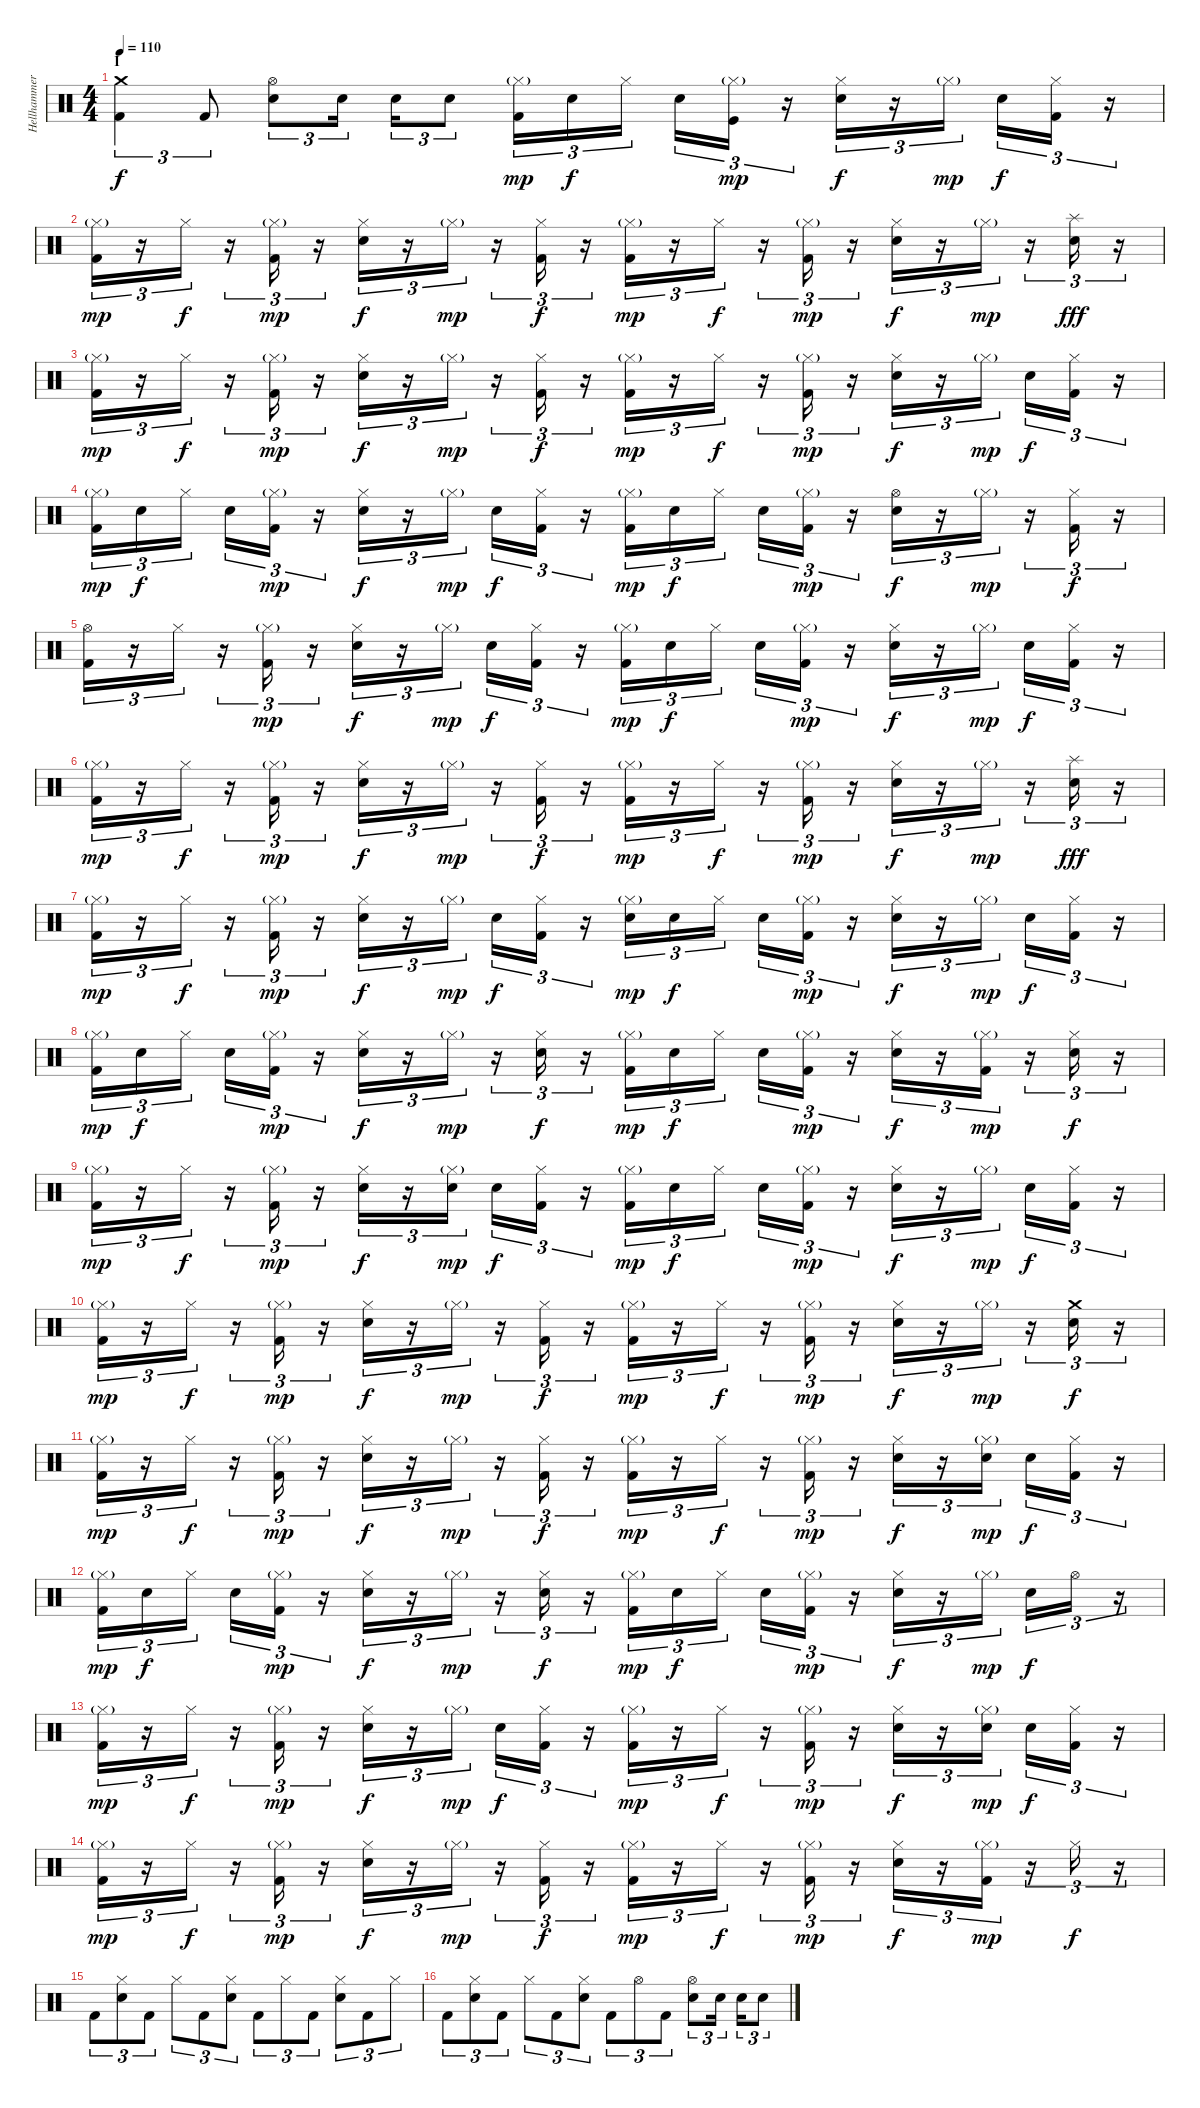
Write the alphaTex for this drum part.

\track ("Hellhammer" "Hellhammer") {instrument percussion}
\staff {score}
\articulation defaults
\ts (4 4)
\section ("" "I")
\tempo 110
\clef neutral
\ks c
("Kick (hit) 2" "Crash medium (hit)").4{tu (3 2) dy f} "Kick (hit) 2".8{tu (3 2)} ("Electric Snare (hit)" "Hi-Hat (open)").8{tu (3 2)} "Electric Snare (hit)".16{tu (3 2)} "Electric Snare (hit)".16{tu (3 2)} "Electric Snare (hit)".8{tu (3 2)} ("Kick (hit) 2" "Hi-Hat (closed)"{g}).16{tu (3 2) dy mp} "Electric Snare (hit)".16{tu (3 2) dy f} "Hi-Hat (closed)".16{tu (3 2)} "Electric Snare (hit)".16{tu (3 2)} ("Kick (hit)" "Hi-Hat (closed)"{g}).16{tu (3 2) dy mp} r.16{tu (3 2)} ("Electric Snare (hit)" "Hi-Hat (closed)").16{tu (3 2) dy f} r.16{tu (3 2)} "Hi-Hat (closed)"{g}.16{tu (3 2) dy mp} "Electric Snare (hit)".16{tu (3 2) dy f} ("Kick (hit) 2" "Hi-Hat (closed)").16{tu (3 2)} r.16{tu (3 2)} |
("Kick (hit) 2" "Hi-Hat (closed)"{g}).16{tu (3 2) dy mp} r.16{tu (3 2)} "Hi-Hat (closed)".16{tu (3 2) dy f} r.16{tu (3 2)} ("Kick (hit) 2" "Hi-Hat (closed)"{g}).16{tu (3 2) dy mp} r.16{tu (3 2)} ("Electric Snare (hit)" "Hi-Hat (closed)").16{tu (3 2) dy f} r.16{tu (3 2)} "Hi-Hat (closed)"{g}.16{tu (3 2) dy mp} r.16{tu (3 2)} ("Kick (hit) 2" "Hi-Hat (closed)").16{tu (3 2) dy f} r.16{tu (3 2)} ("Kick (hit) 2" "Hi-Hat (closed)"{g}).16{tu (3 2) dy mp} r.16{tu (3 2)} "Hi-Hat (closed)".16{tu (3 2) dy f} r.16{tu (3 2)} ("Kick (hit) 2" "Hi-Hat (closed)"{g}).16{tu (3 2) dy mp} r.16{tu (3 2)} ("Electric Snare (hit)" "Hi-Hat (closed)").16{tu (3 2) dy f} r.16{tu (3 2)} "Hi-Hat (closed)"{g}.16{tu (3 2) dy mp} r.16{tu (3 2)} ("Electric Snare (hit)" "Splash (hit)").16{tu (3 2) dy fff} r.16{tu (3 2)} |
("Kick (hit) 2" "Hi-Hat (closed)"{g}).16{tu (3 2) dy mp} r.16{tu (3 2)} "Hi-Hat (closed)".16{tu (3 2) dy f} r.16{tu (3 2)} ("Kick (hit) 2" "Hi-Hat (closed)"{g}).16{tu (3 2) dy mp} r.16{tu (3 2)} ("Electric Snare (hit)" "Hi-Hat (closed)").16{tu (3 2) dy f} r.16{tu (3 2)} "Hi-Hat (closed)"{g}.16{tu (3 2) dy mp} r.16{tu (3 2)} ("Kick (hit) 2" "Hi-Hat (closed)").16{tu (3 2) dy f} r.16{tu (3 2)} ("Kick (hit) 2" "Hi-Hat (closed)"{g}).16{tu (3 2) dy mp} r.16{tu (3 2)} "Hi-Hat (closed)".16{tu (3 2) dy f} r.16{tu (3 2)} ("Kick (hit) 2" "Hi-Hat (closed)"{g}).16{tu (3 2) dy mp} r.16{tu (3 2)} ("Electric Snare (hit)" "Hi-Hat (closed)").16{tu (3 2) dy f} r.16{tu (3 2)} "Hi-Hat (closed)"{g}.16{tu (3 2) dy mp} "Electric Snare (hit)".16{tu (3 2) dy f} ("Kick (hit) 2" "Hi-Hat (closed)").16{tu (3 2)} r.16{tu (3 2)} |
("Kick (hit) 2" "Hi-Hat (closed)"{g}).16{tu (3 2) dy mp} "Electric Snare (hit)".16{tu (3 2) dy f} "Hi-Hat (closed)".16{tu (3 2)} "Electric Snare (hit)".16{tu (3 2)} ("Kick (hit) 2" "Hi-Hat (closed)"{g}).16{tu (3 2) dy mp} r.16{tu (3 2)} ("Electric Snare (hit)" "Hi-Hat (closed)").16{tu (3 2) dy f} r.16{tu (3 2)} "Hi-Hat (closed)"{g}.16{tu (3 2) dy mp} "Electric Snare (hit)".16{tu (3 2) dy f} ("Kick (hit) 2" "Hi-Hat (closed)").16{tu (3 2)} r.16{tu (3 2)} ("Kick (hit) 2" "Hi-Hat (closed)"{g}).16{tu (3 2) dy mp} "Electric Snare (hit)".16{tu (3 2) dy f} "Hi-Hat (closed)".16{tu (3 2)} "Electric Snare (hit)".16{tu (3 2)} ("Kick (hit) 2" "Hi-Hat (closed)"{g}).16{tu (3 2) dy mp} r.16{tu (3 2)} ("Electric Snare (hit)" "Hi-Hat (open)").16{tu (3 2) dy f} r.16{tu (3 2)} "Hi-Hat (closed)"{g}.16{tu (3 2) dy mp} r.16{tu (3 2)} ("Kick (hit) 2" "Hi-Hat (closed)").16{tu (3 2) dy f} r.16{tu (3 2)} |
("Kick (hit) 2" "Hi-Hat (open)").16{tu (3 2)} r.16{tu (3 2)} "Hi-Hat (closed)".16{tu (3 2)} r.16{tu (3 2)} ("Kick (hit) 2" "Hi-Hat (closed)"{g}).16{tu (3 2) dy mp} r.16{tu (3 2)} ("Electric Snare (hit)" "Hi-Hat (closed)").16{tu (3 2) dy f} r.16{tu (3 2)} "Hi-Hat (closed)"{g}.16{tu (3 2) dy mp} "Electric Snare (hit)".16{tu (3 2) dy f} ("Kick (hit) 2" "Hi-Hat (closed)").16{tu (3 2)} r.16{tu (3 2)} ("Kick (hit) 2" "Hi-Hat (closed)"{g}).16{tu (3 2) dy mp} "Electric Snare (hit)".16{tu (3 2) dy f} "Hi-Hat (closed)".16{tu (3 2)} "Electric Snare (hit)".16{tu (3 2)} ("Kick (hit) 2" "Hi-Hat (closed)"{g}).16{tu (3 2) dy mp} r.16{tu (3 2)} ("Electric Snare (hit)" "Hi-Hat (closed)").16{tu (3 2) dy f} r.16{tu (3 2)} "Hi-Hat (closed)"{g}.16{tu (3 2) dy mp} "Electric Snare (hit)".16{tu (3 2) dy f} ("Kick (hit) 2" "Hi-Hat (closed)").16{tu (3 2)} r.16{tu (3 2)} |
("Kick (hit) 2" "Hi-Hat (closed)"{g}).16{tu (3 2) dy mp} r.16{tu (3 2)} "Hi-Hat (closed)".16{tu (3 2) dy f} r.16{tu (3 2)} ("Kick (hit) 2" "Hi-Hat (closed)"{g}).16{tu (3 2) dy mp} r.16{tu (3 2)} ("Electric Snare (hit)" "Hi-Hat (closed)").16{tu (3 2) dy f} r.16{tu (3 2)} "Hi-Hat (closed)"{g}.16{tu (3 2) dy mp} r.16{tu (3 2)} ("Kick (hit) 2" "Hi-Hat (closed)").16{tu (3 2) dy f} r.16{tu (3 2)} ("Kick (hit) 2" "Hi-Hat (closed)"{g}).16{tu (3 2) dy mp} r.16{tu (3 2)} "Hi-Hat (closed)".16{tu (3 2) dy f} r.16{tu (3 2)} ("Kick (hit) 2" "Hi-Hat (closed)"{g}).16{tu (3 2) dy mp} r.16{tu (3 2)} ("Electric Snare (hit)" "Hi-Hat (closed)").16{tu (3 2) dy f} r.16{tu (3 2)} "Hi-Hat (closed)"{g}.16{tu (3 2) dy mp} r.16{tu (3 2)} ("Electric Snare (hit)" "Splash (hit)").16{tu (3 2) dy fff} r.16{tu (3 2)} |
("Kick (hit) 2" "Hi-Hat (closed)"{g}).16{tu (3 2) dy mp} r.16{tu (3 2)} "Hi-Hat (closed)".16{tu (3 2) dy f} r.16{tu (3 2)} ("Kick (hit) 2" "Hi-Hat (closed)"{g}).16{tu (3 2) dy mp} r.16{tu (3 2)} ("Electric Snare (hit)" "Hi-Hat (closed)").16{tu (3 2) dy f} r.16{tu (3 2)} "Hi-Hat (closed)"{g}.16{tu (3 2) dy mp} "Electric Snare (hit)".16{tu (3 2) dy f} ("Kick (hit) 2" "Hi-Hat (closed)").16{tu (3 2)} r.16{tu (3 2)} ("Electric Snare (hit)" "Hi-Hat (closed)"{g}).16{tu (3 2) dy mp} "Electric Snare (hit)".16{tu (3 2) dy f} "Hi-Hat (closed)".16{tu (3 2)} "Electric Snare (hit)".16{tu (3 2)} ("Kick (hit) 2" "Hi-Hat (closed)"{g}).16{tu (3 2) dy mp} r.16{tu (3 2)} ("Electric Snare (hit)" "Hi-Hat (closed)").16{tu (3 2) dy f} r.16{tu (3 2)} "Hi-Hat (closed)"{g}.16{tu (3 2) dy mp} "Electric Snare (hit)".16{tu (3 2) dy f} ("Kick (hit) 2" "Hi-Hat (closed)").16{tu (3 2)} r.16{tu (3 2)} |
("Kick (hit) 2" "Hi-Hat (closed)"{g}).16{tu (3 2) dy mp} "Electric Snare (hit)".16{tu (3 2) dy f} "Hi-Hat (closed)".16{tu (3 2)} "Electric Snare (hit)".16{tu (3 2)} ("Kick (hit) 2" "Hi-Hat (closed)"{g}).16{tu (3 2) dy mp} r.16{tu (3 2)} ("Electric Snare (hit)" "Hi-Hat (closed)").16{tu (3 2) dy f} r.16{tu (3 2)} "Hi-Hat (closed)"{g}.16{tu (3 2) dy mp} r.16{tu (3 2)} ("Electric Snare (hit)" "Hi-Hat (closed)").16{tu (3 2) dy f} r.16{tu (3 2)} ("Kick (hit) 2" "Hi-Hat (closed)"{g}).16{tu (3 2) dy mp} "Electric Snare (hit)".16{tu (3 2) dy f} "Hi-Hat (closed)".16{tu (3 2)} "Electric Snare (hit)".16{tu (3 2)} ("Kick (hit) 2" "Hi-Hat (closed)"{g}).16{tu (3 2) dy mp} r.16{tu (3 2)} ("Electric Snare (hit)" "Hi-Hat (closed)").16{tu (3 2) dy f} r.16{tu (3 2)} ("Kick (hit) 2" "Hi-Hat (closed)"{g}).16{tu (3 2) dy mp} r.16{tu (3 2)} ("Electric Snare (hit)" "Hi-Hat (closed)").16{tu (3 2) dy f} r.16{tu (3 2)} |
("Kick (hit) 2" "Hi-Hat (closed)"{g}).16{tu (3 2) dy mp} r.16{tu (3 2)} "Hi-Hat (closed)".16{tu (3 2) dy f} r.16{tu (3 2)} ("Kick (hit) 2" "Hi-Hat (closed)"{g}).16{tu (3 2) dy mp} r.16{tu (3 2)} ("Electric Snare (hit)" "Hi-Hat (closed)").16{tu (3 2) dy f} r.16{tu (3 2)} ("Electric Snare (hit)" "Hi-Hat (closed)"{g}).16{tu (3 2) dy mp} "Electric Snare (hit)".16{tu (3 2) dy f} ("Kick (hit) 2" "Hi-Hat (closed)").16{tu (3 2)} r.16{tu (3 2)} ("Kick (hit) 2" "Hi-Hat (closed)"{g}).16{tu (3 2) dy mp} "Electric Snare (hit)".16{tu (3 2) dy f} "Hi-Hat (closed)".16{tu (3 2)} "Electric Snare (hit)".16{tu (3 2)} ("Kick (hit) 2" "Hi-Hat (closed)"{g}).16{tu (3 2) dy mp} r.16{tu (3 2)} ("Electric Snare (hit)" "Hi-Hat (closed)").16{tu (3 2) dy f} r.16{tu (3 2)} "Hi-Hat (closed)"{g}.16{tu (3 2) dy mp} "Electric Snare (hit)".16{tu (3 2) dy f} ("Kick (hit) 2" "Hi-Hat (closed)").16{tu (3 2)} r.16{tu (3 2)} |
("Kick (hit) 2" "Hi-Hat (closed)"{g}).16{tu (3 2) dy mp} r.16{tu (3 2)} "Hi-Hat (closed)".16{tu (3 2) dy f} r.16{tu (3 2)} ("Kick (hit) 2" "Hi-Hat (closed)"{g}).16{tu (3 2) dy mp} r.16{tu (3 2)} ("Electric Snare (hit)" "Hi-Hat (closed)").16{tu (3 2) dy f} r.16{tu (3 2)} "Hi-Hat (closed)"{g}.16{tu (3 2) dy mp} r.16{tu (3 2)} ("Kick (hit) 2" "Hi-Hat (closed)").16{tu (3 2) dy f} r.16{tu (3 2)} ("Kick (hit) 2" "Hi-Hat (closed)"{g}).16{tu (3 2) dy mp} r.16{tu (3 2)} "Hi-Hat (closed)".16{tu (3 2) dy f} r.16{tu (3 2)} ("Kick (hit) 2" "Hi-Hat (closed)"{g}).16{tu (3 2) dy mp} r.16{tu (3 2)} ("Electric Snare (hit)" "Hi-Hat (closed)").16{tu (3 2) dy f} r.16{tu (3 2)} "Hi-Hat (closed)"{g}.16{tu (3 2) dy mp} r.16{tu (3 2)} ("Electric Snare (hit)" "Crash medium (hit)").16{tu (3 2) dy f} r.16{tu (3 2)} |
("Kick (hit) 2" "Hi-Hat (closed)"{g}).16{tu (3 2) dy mp} r.16{tu (3 2)} "Hi-Hat (closed)".16{tu (3 2) dy f} r.16{tu (3 2)} ("Kick (hit) 2" "Hi-Hat (closed)"{g}).16{tu (3 2) dy mp} r.16{tu (3 2)} ("Electric Snare (hit)" "Hi-Hat (closed)").16{tu (3 2) dy f} r.16{tu (3 2)} "Hi-Hat (closed)"{g}.16{tu (3 2) dy mp} r.16{tu (3 2)} ("Kick (hit) 2" "Hi-Hat (closed)").16{tu (3 2) dy f} r.16{tu (3 2)} ("Kick (hit) 2" "Hi-Hat (closed)"{g}).16{tu (3 2) dy mp} r.16{tu (3 2)} "Hi-Hat (closed)".16{tu (3 2) dy f} r.16{tu (3 2)} ("Kick (hit) 2" "Hi-Hat (closed)"{g}).16{tu (3 2) dy mp} r.16{tu (3 2)} ("Electric Snare (hit)" "Hi-Hat (closed)").16{tu (3 2) dy f} r.16{tu (3 2)} ("Electric Snare (hit)" "Hi-Hat (closed)"{g}).16{tu (3 2) dy mp} "Electric Snare (hit)".16{tu (3 2) dy f} ("Kick (hit) 2" "Hi-Hat (closed)").16{tu (3 2)} r.16{tu (3 2)} |
("Kick (hit) 2" "Hi-Hat (closed)"{g}).16{tu (3 2) dy mp} "Electric Snare (hit)".16{tu (3 2) dy f} "Hi-Hat (closed)".16{tu (3 2)} "Electric Snare (hit)".16{tu (3 2)} ("Kick (hit) 2" "Hi-Hat (closed)"{g}).16{tu (3 2) dy mp} r.16{tu (3 2)} ("Electric Snare (hit)" "Hi-Hat (closed)").16{tu (3 2) dy f} r.16{tu (3 2)} "Hi-Hat (closed)"{g}.16{tu (3 2) dy mp} r.16{tu (3 2)} ("Electric Snare (hit)" "Hi-Hat (closed)").16{tu (3 2) dy f} r.16{tu (3 2)} ("Kick (hit) 2" "Hi-Hat (closed)"{g}).16{tu (3 2) dy mp} "Electric Snare (hit)".16{tu (3 2) dy f} "Hi-Hat (closed)".16{tu (3 2)} "Electric Snare (hit)".16{tu (3 2)} ("Kick (hit) 2" "Hi-Hat (closed)"{g}).16{tu (3 2) dy mp} r.16{tu (3 2)} ("Electric Snare (hit)" "Hi-Hat (closed)").16{tu (3 2) dy f} r.16{tu (3 2)} "Hi-Hat (closed)"{g}.16{tu (3 2) dy mp} "Electric Snare (hit)".16{tu (3 2) dy f} "Hi-Hat (open)".16{tu (3 2)} r.16{tu (3 2)} |
("Kick (hit) 2" "Hi-Hat (closed)"{g}).16{tu (3 2) dy mp} r.16{tu (3 2)} "Hi-Hat (closed)".16{tu (3 2) dy f} r.16{tu (3 2)} ("Kick (hit) 2" "Hi-Hat (closed)"{g}).16{tu (3 2) dy mp} r.16{tu (3 2)} ("Electric Snare (hit)" "Hi-Hat (closed)").16{tu (3 2) dy f} r.16{tu (3 2)} "Hi-Hat (closed)"{g}.16{tu (3 2) dy mp} "Electric Snare (hit)".16{tu (3 2) dy f} ("Kick (hit) 2" "Hi-Hat (closed)").16{tu (3 2)} r.16{tu (3 2)} ("Kick (hit) 2" "Hi-Hat (closed)"{g}).16{tu (3 2) dy mp} r.16{tu (3 2)} "Hi-Hat (closed)".16{tu (3 2) dy f} r.16{tu (3 2)} ("Kick (hit) 2" "Hi-Hat (closed)"{g}).16{tu (3 2) dy mp} r.16{tu (3 2)} ("Electric Snare (hit)" "Hi-Hat (closed)").16{tu (3 2) dy f} r.16{tu (3 2)} ("Electric Snare (hit)" "Hi-Hat (closed)"{g}).16{tu (3 2) dy mp} "Electric Snare (hit)".16{tu (3 2) dy f} ("Kick (hit) 2" "Hi-Hat (closed)").16{tu (3 2)} r.16{tu (3 2)} |
("Kick (hit) 2" "Hi-Hat (closed)"{g}).16{tu (3 2) dy mp} r.16{tu (3 2)} "Hi-Hat (closed)".16{tu (3 2) dy f} r.16{tu (3 2)} ("Kick (hit) 2" "Hi-Hat (closed)"{g}).16{tu (3 2) dy mp} r.16{tu (3 2)} ("Electric Snare (hit)" "Hi-Hat (closed)").16{tu (3 2) dy f} r.16{tu (3 2)} "Hi-Hat (closed)"{g}.16{tu (3 2) dy mp} r.16{tu (3 2)} ("Kick (hit) 2" "Hi-Hat (closed)").16{tu (3 2) dy f} r.16{tu (3 2)} ("Kick (hit) 2" "Hi-Hat (closed)"{g}).16{tu (3 2) dy mp} r.16{tu (3 2)} "Hi-Hat (closed)".16{tu (3 2) dy f} r.16{tu (3 2)} ("Kick (hit) 2" "Hi-Hat (closed)"{g}).16{tu (3 2) dy mp} r.16{tu (3 2)} ("Electric Snare (hit)" "Hi-Hat (closed)").16{tu (3 2) dy f} r.16{tu (3 2)} ("Kick (hit) 2" "Hi-Hat (closed)"{g}).16{tu (3 2) dy mp} r.16{tu (3 2)} "Hi-Hat (closed)".16{tu (3 2) dy f} r.16{tu (3 2)} |
"Kick (hit) 2".8{tu (3 2)} ("Electric Snare (hit)" "Hi-Hat (closed)").8{tu (3 2)} "Kick (hit) 2".8{tu (3 2)} "Hi-Hat (closed)".8{tu (3 2)} "Kick (hit) 2".8{tu (3 2)} ("Electric Snare (hit)" "Hi-Hat (closed)").8{tu (3 2)} "Kick (hit) 2".8{tu (3 2)} "Hi-Hat (closed)".8{tu (3 2)} "Kick (hit) 2".8{tu (3 2)} ("Electric Snare (hit)" "Hi-Hat (closed)").8{tu (3 2)} "Kick (hit) 2".8{tu (3 2)} "Hi-Hat (closed)".8{tu (3 2)} |
"Kick (hit) 2".8{tu (3 2)} ("Electric Snare (hit)" "Hi-Hat (closed)").8{tu (3 2)} "Kick (hit) 2".8{tu (3 2)} "Hi-Hat (closed)".8{tu (3 2)} "Kick (hit) 2".8{tu (3 2)} ("Electric Snare (hit)" "Hi-Hat (closed)").8{tu (3 2)} "Kick (hit) 2".8{tu (3 2)} "Hi-Hat (open)".8{tu (3 2)} "Kick (hit) 2".8{tu (3 2)} ("Electric Snare (hit)" "Hi-Hat (open)").8{tu (3 2)} "Electric Snare (hit)".16{tu (3 2)} "Electric Snare (hit)".16{tu (3 2)} "Electric Snare (hit)".8{tu (3 2)}
